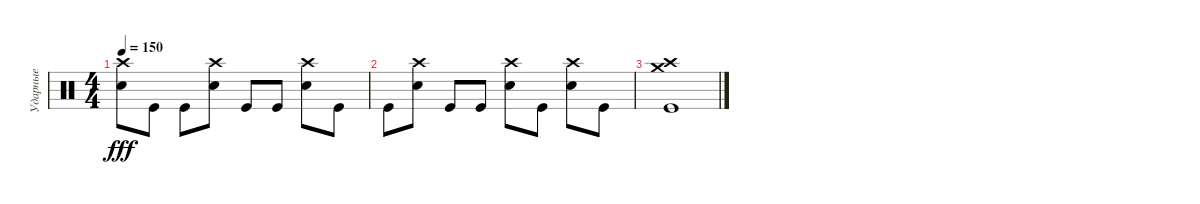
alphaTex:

\track ("Ударные" "Ударные") {instrument percussion}
\staff {score}
\articulation defaults
\ts (4 4)
\tempo 150
\clef neutral
\ks c
("Crash high (hit)" "Electric Snare (hit)").8{dy fff} "Kick (hit)".8 "Kick (hit)".8 ("Crash high (hit)" "Electric Snare (hit)").8 "Kick (hit)".8 "Kick (hit)".8 ("Crash high (hit)" "Electric Snare (hit)").8 "Kick (hit)".8 |
"Kick (hit)".8 ("Crash high (hit)" "Electric Snare (hit)").8 "Kick (hit)".8 "Kick (hit)".8 ("Crash high (hit)" "Electric Snare (hit)").8 "Kick (hit)".8 ("Crash high (hit)" "Electric Snare (hit)").8 "Kick (hit)".8 |
("Crash medium (hit)" "Crash high (hit)" "Kick (hit)").1
